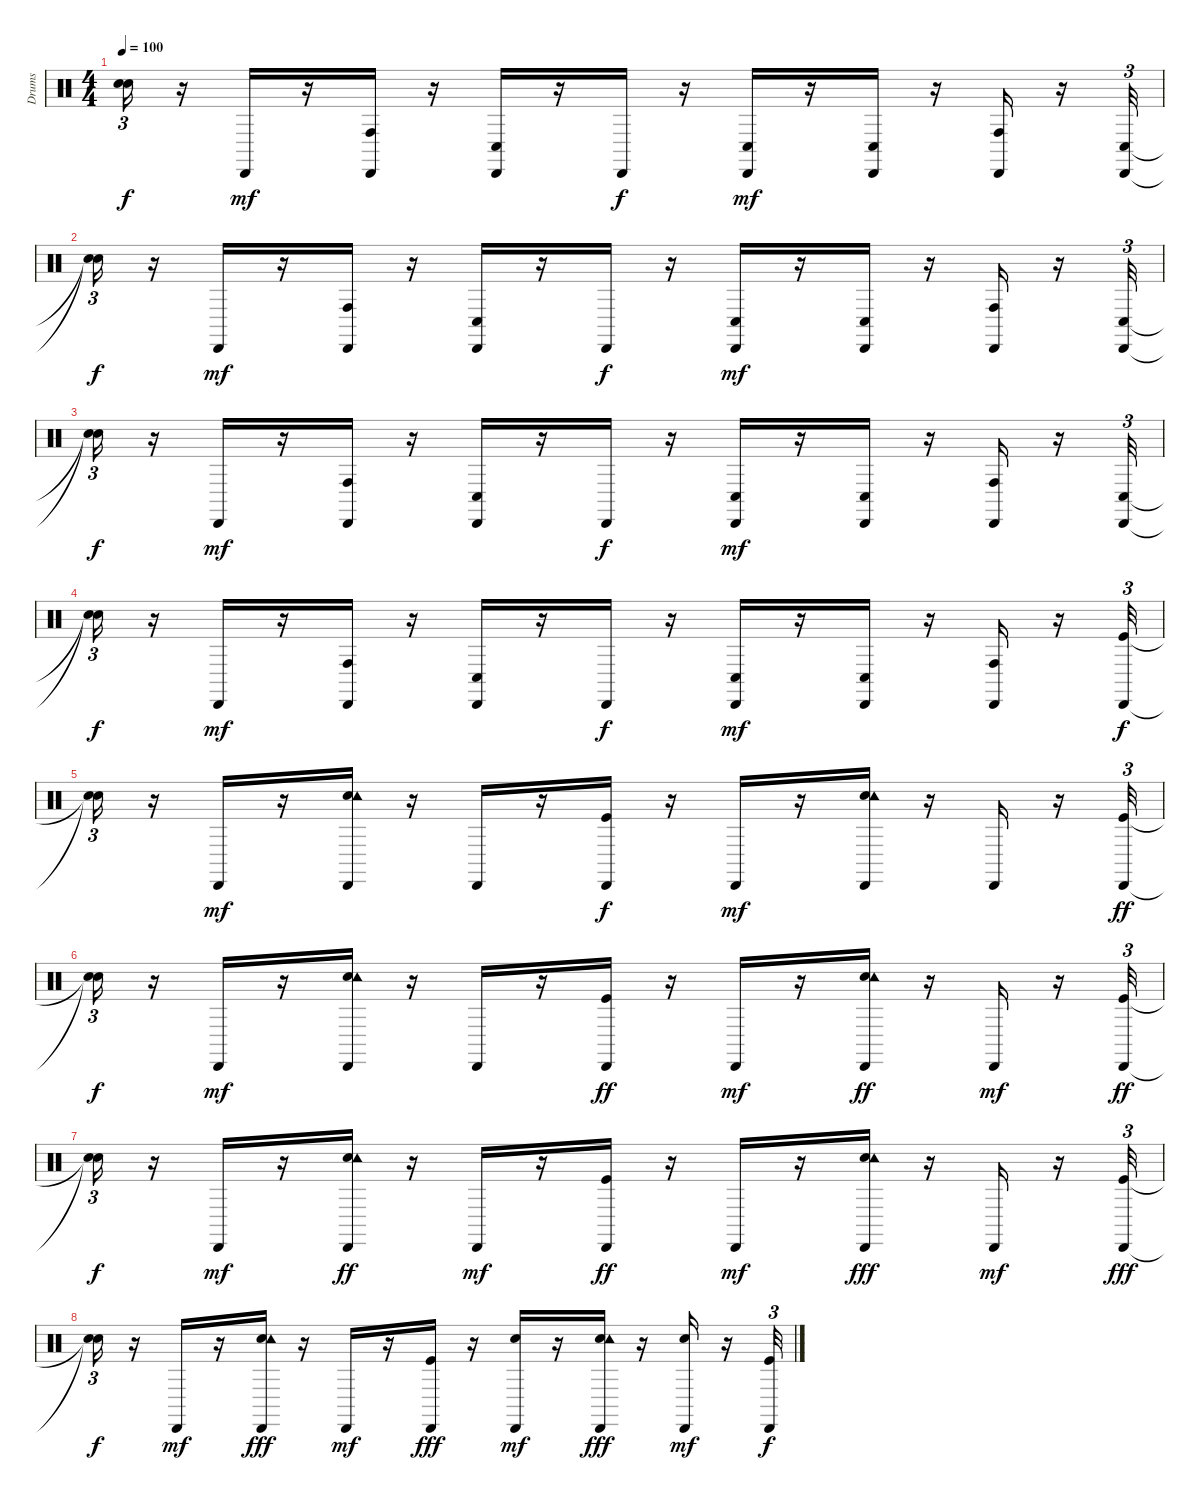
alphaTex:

\track ("Drums" "Drums") {instrument percussion}
\staff {score}
\articulation defaults
\ts (4 4)
\tempo 100
\clef neutral
\ks c
("Snare (hit)"{t} "Snare (hit)"{t}).16{tu (3 2) dy f} r.16 "Cabasa (hit)".16{dy mf} r.16 ("Conga high (hit)" "Cabasa (hit)").16 r.16 ("Conga low (hit)" "Cabasa (hit)").16 r.16 "Cabasa (hit)".16{dy f} r.16 ("Conga low (hit)" "Cabasa (hit)").16{dy mf} r.16 ("Conga low (hit)" "Cabasa (hit)").16 r.16 ("Conga high (hit)" "Cabasa (hit)").16 r.16 ("Conga low (hit)" "Cabasa (hit)").32{tu (3 2)} |
("Snare (hit)"{t} "Snare (hit)"{t}).16{tu (3 2) dy f} r.16 "Cabasa (hit)".16{dy mf} r.16 ("Conga high (hit)" "Cabasa (hit)").16 r.16 ("Conga low (hit)" "Cabasa (hit)").16 r.16 "Cabasa (hit)".16{dy f} r.16 ("Conga low (hit)" "Cabasa (hit)").16{dy mf} r.16 ("Conga low (hit)" "Cabasa (hit)").16 r.16 ("Conga high (hit)" "Cabasa (hit)").16 r.16 ("Conga low (hit)" "Cabasa (hit)").32{tu (3 2)} |
("Snare (hit)"{t} "Snare (hit)"{t}).16{tu (3 2) dy f} r.16 "Cabasa (hit)".16{dy mf} r.16 ("Conga high (hit)" "Cabasa (hit)").16 r.16 ("Conga low (hit)" "Cabasa (hit)").16 r.16 "Cabasa (hit)".16{dy f} r.16 ("Conga low (hit)" "Cabasa (hit)").16{dy mf} r.16 ("Conga low (hit)" "Cabasa (hit)").16 r.16 ("Conga high (hit)" "Cabasa (hit)").16 r.16 ("Conga low (hit)" "Cabasa (hit)").32{tu (3 2)} |
("Snare (hit)"{t} "Snare (hit)"{t}).16{tu (3 2) dy f} r.16 "Cabasa (hit)".16{dy mf} r.16 ("Conga high (hit)" "Cabasa (hit)").16 r.16 ("Conga low (hit)" "Cabasa (hit)").16 r.16 "Cabasa (hit)".16{dy f} r.16 ("Conga low (hit)" "Cabasa (hit)").16{dy mf} r.16 ("Conga low (hit)" "Cabasa (hit)").16 r.16 ("Conga high (hit)" "Cabasa (hit)").16 r.16 ("Kick (hit)" "Cabasa (hit)").32{tu (3 2) dy f} |
("Snare (hit)"{t} "Snare (hit)"{t}).16{tu (3 2)} r.16 "Cabasa (hit)".16{dy mf} r.16 ("Snare (hit) 2" "Tambourine (hit)" "Cabasa (hit)").16 r.16 "Cabasa (hit)".16 r.16 ("Kick (hit)" "Cabasa (hit)").16{dy f} r.16 "Cabasa (hit)".16{dy mf} r.16 ("Snare (hit) 2" "Tambourine (hit)" "Cabasa (hit)").16 r.16 "Cabasa (hit)".16 r.16 ("Kick (hit)" "Cabasa (hit)").32{tu (3 2) dy ff} |
("Snare (hit)"{t} "Snare (hit)"{t}).16{tu (3 2) dy f} r.16 "Cabasa (hit)".16{dy mf} r.16 ("Snare (hit) 2" "Tambourine (hit)" "Cabasa (hit)").16 r.16 "Cabasa (hit)".16 r.16 ("Kick (hit)" "Cabasa (hit)").16{dy ff} r.16 "Cabasa (hit)".16{dy mf} r.16 ("Snare (hit) 2" "Tambourine (hit)" "Cabasa (hit)").16{dy ff} r.16 "Cabasa (hit)".16{dy mf} r.16 ("Kick (hit)" "Cabasa (hit)").32{tu (3 2) dy ff} |
("Snare (hit)"{t} "Snare (hit)"{t}).16{tu (3 2) dy f} r.16 "Cabasa (hit)".16{dy mf} r.16 ("Snare (hit) 2" "Tambourine (hit)" "Cabasa (hit)").16{dy ff} r.16 "Cabasa (hit)".16{dy mf} r.16 ("Kick (hit)" "Cabasa (hit)").16{dy ff} r.16 "Cabasa (hit)".16{dy mf} r.16 ("Snare (hit) 2" "Tambourine (hit)" "Cabasa (hit)").16{dy fff} r.16 "Cabasa (hit)".16{dy mf} r.16 ("Kick (hit)" "Cabasa (hit)").32{tu (3 2) dy fff} |
("Snare (hit)"{t} "Snare (hit)"{t}).16{tu (3 2) dy f} r.16 "Cabasa (hit)".16{dy mf} r.16 ("Snare (hit) 2" "Tambourine (hit)" "Cabasa (hit)").16{dy fff} r.16 "Cabasa (hit)".16{dy mf} r.16 ("Kick (hit)" "Cabasa (hit)").16{dy fff} r.16 ("Snare (hit) 2" "Cabasa (hit)").16{dy mf} r.16 ("Snare (hit) 2" "Tambourine (hit)" "Cabasa (hit)").16{dy fff} r.16 ("Snare (hit) 2" "Cabasa (hit)").16{dy mf} r.16 ("Kick (hit)" "Cabasa (hit)").32{tu (3 2) dy f}
